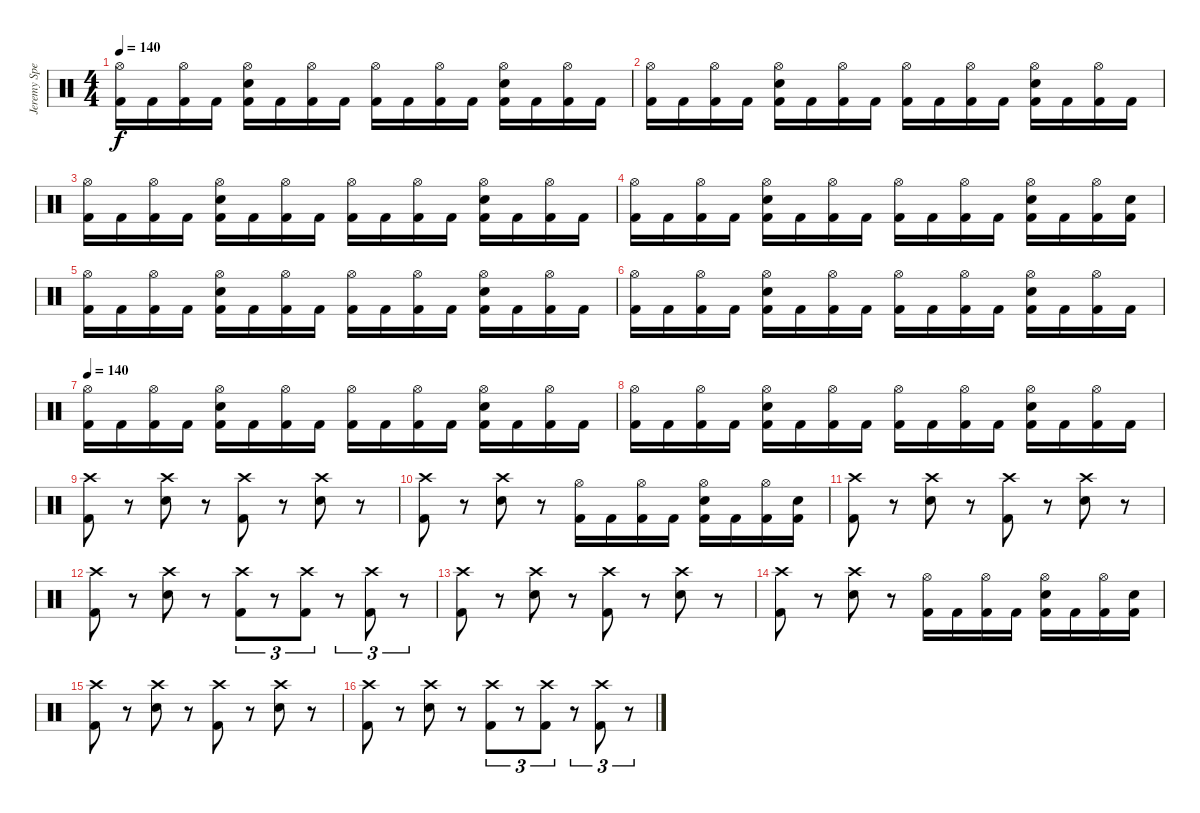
\track ("Jeremy Spencer" "Jeremy Spe") {instrument percussion}
\staff {score}
\articulation defaults
\ts (4 4)
\tempo 140
\clef neutral
\ks c
("Hi-Hat (open)" "Kick (hit) 2").16{dy f} "Kick (hit) 2".16 ("Hi-Hat (open)" "Kick (hit) 2").16 "Kick (hit) 2".16 ("Hi-Hat (open)" "Snare (hit) 2" "Kick (hit) 2").16 "Kick (hit) 2".16 ("Hi-Hat (open)" "Kick (hit) 2").16 "Kick (hit) 2".16 ("Hi-Hat (open)" "Kick (hit) 2").16 "Kick (hit) 2".16 ("Hi-Hat (open)" "Kick (hit) 2").16 "Kick (hit) 2".16 ("Hi-Hat (open)" "Snare (hit) 2" "Kick (hit) 2").16 "Kick (hit) 2".16 ("Hi-Hat (open)" "Kick (hit) 2").16 "Kick (hit) 2".16 |
("Hi-Hat (open)" "Kick (hit) 2").16 "Kick (hit) 2".16 ("Hi-Hat (open)" "Kick (hit) 2").16 "Kick (hit) 2".16 ("Hi-Hat (open)" "Snare (hit) 2" "Kick (hit) 2").16 "Kick (hit) 2".16 ("Hi-Hat (open)" "Kick (hit) 2").16 "Kick (hit) 2".16 ("Hi-Hat (open)" "Kick (hit) 2").16 "Kick (hit) 2".16 ("Hi-Hat (open)" "Kick (hit) 2").16 "Kick (hit) 2".16 ("Hi-Hat (open)" "Snare (hit) 2" "Kick (hit) 2").16 "Kick (hit) 2".16 ("Hi-Hat (open)" "Kick (hit) 2").16 "Kick (hit) 2".16 |
("Hi-Hat (open)" "Kick (hit) 2").16 "Kick (hit) 2".16 ("Hi-Hat (open)" "Kick (hit) 2").16 "Kick (hit) 2".16 ("Hi-Hat (open)" "Snare (hit) 2" "Kick (hit) 2").16 "Kick (hit) 2".16 ("Hi-Hat (open)" "Kick (hit) 2").16 "Kick (hit) 2".16 ("Hi-Hat (open)" "Kick (hit) 2").16 "Kick (hit) 2".16 ("Hi-Hat (open)" "Kick (hit) 2").16 "Kick (hit) 2".16 ("Hi-Hat (open)" "Snare (hit) 2" "Kick (hit) 2").16 "Kick (hit) 2".16 ("Hi-Hat (open)" "Kick (hit) 2").16 "Kick (hit) 2".16 |
("Hi-Hat (open)" "Kick (hit) 2").16 "Kick (hit) 2".16 ("Hi-Hat (open)" "Kick (hit) 2").16 "Kick (hit) 2".16 ("Hi-Hat (open)" "Snare (hit) 2" "Kick (hit) 2").16 "Kick (hit) 2".16 ("Hi-Hat (open)" "Kick (hit) 2").16 "Kick (hit) 2".16 ("Hi-Hat (open)" "Kick (hit) 2").16 "Kick (hit) 2".16 ("Hi-Hat (open)" "Kick (hit) 2").16 "Kick (hit) 2".16 ("Hi-Hat (open)" "Snare (hit) 2" "Kick (hit) 2").16 "Kick (hit) 2".16 ("Hi-Hat (open)" "Kick (hit) 2").16 ("Snare (hit) 2" "Kick (hit) 2").16 |
("Hi-Hat (open)" "Kick (hit) 2").16 "Kick (hit) 2".16 ("Hi-Hat (open)" "Kick (hit) 2").16 "Kick (hit) 2".16 ("Hi-Hat (open)" "Snare (hit) 2" "Kick (hit) 2").16 "Kick (hit) 2".16 ("Hi-Hat (open)" "Kick (hit) 2").16 "Kick (hit) 2".16 ("Hi-Hat (open)" "Kick (hit) 2").16 "Kick (hit) 2".16 ("Hi-Hat (open)" "Kick (hit) 2").16 "Kick (hit) 2".16 ("Hi-Hat (open)" "Snare (hit) 2" "Kick (hit) 2").16 "Kick (hit) 2".16 ("Hi-Hat (open)" "Kick (hit) 2").16 "Kick (hit) 2".16 |
("Hi-Hat (open)" "Kick (hit) 2").16 "Kick (hit) 2".16 ("Hi-Hat (open)" "Kick (hit) 2").16 "Kick (hit) 2".16 ("Hi-Hat (open)" "Snare (hit) 2" "Kick (hit) 2").16 "Kick (hit) 2".16 ("Hi-Hat (open)" "Kick (hit) 2").16 "Kick (hit) 2".16 ("Hi-Hat (open)" "Kick (hit) 2").16 "Kick (hit) 2".16 ("Hi-Hat (open)" "Kick (hit) 2").16 "Kick (hit) 2".16 ("Hi-Hat (open)" "Snare (hit) 2" "Kick (hit) 2").16 "Kick (hit) 2".16 ("Hi-Hat (open)" "Kick (hit) 2").16 "Kick (hit) 2".16 |
\tempo 140
("Hi-Hat (open)" "Kick (hit) 2").16 "Kick (hit) 2".16 ("Hi-Hat (open)" "Kick (hit) 2").16 "Kick (hit) 2".16 ("Hi-Hat (open)" "Snare (hit) 2" "Kick (hit) 2").16 "Kick (hit) 2".16 ("Hi-Hat (open)" "Kick (hit) 2").16 "Kick (hit) 2".16 ("Hi-Hat (open)" "Kick (hit) 2").16 "Kick (hit) 2".16 ("Hi-Hat (open)" "Kick (hit) 2").16 "Kick (hit) 2".16 ("Hi-Hat (open)" "Snare (hit) 2" "Kick (hit) 2").16 "Kick (hit) 2".16 ("Hi-Hat (open)" "Kick (hit) 2").16 "Kick (hit) 2".16 |
("Hi-Hat (open)" "Kick (hit) 2").16 "Kick (hit) 2".16 ("Hi-Hat (open)" "Kick (hit) 2").16 "Kick (hit) 2".16 ("Hi-Hat (open)" "Snare (hit) 2" "Kick (hit) 2").16 "Kick (hit) 2".16 ("Hi-Hat (open)" "Kick (hit) 2").16 "Kick (hit) 2".16 ("Hi-Hat (open)" "Kick (hit) 2").16 "Kick (hit) 2".16 ("Hi-Hat (open)" "Kick (hit) 2").16 "Kick (hit) 2".16 ("Hi-Hat (open)" "Snare (hit) 2" "Kick (hit) 2").16 "Kick (hit) 2".16 ("Hi-Hat (open)" "Kick (hit) 2").16 "Kick (hit) 2".16 |
("Crash high (hit)" "Kick (hit) 2").8 r.8 ("Crash high (hit)" "Snare (hit) 2").8 r.8 ("Crash high (hit)" "Kick (hit) 2").8 r.8 ("Crash high (hit)" "Snare (hit) 2").8 r.8 |
("Crash high (hit)" "Kick (hit) 2").8 r.8 ("Crash high (hit)" "Snare (hit) 2").8 r.8 ("Hi-Hat (open)" "Kick (hit) 2").16 "Kick (hit) 2".16 ("Hi-Hat (open)" "Kick (hit) 2").16 "Kick (hit) 2".16 ("Hi-Hat (open)" "Snare (hit) 2" "Kick (hit) 2").16 "Kick (hit) 2".16 ("Hi-Hat (open)" "Kick (hit) 2").16 ("Snare (hit) 2" "Kick (hit) 2").16 |
("Crash high (hit)" "Kick (hit) 2").8 r.8 ("Crash high (hit)" "Snare (hit) 2").8 r.8 ("Crash high (hit)" "Kick (hit) 2").8 r.8 ("Crash high (hit)" "Snare (hit) 2").8 r.8 |
("Crash high (hit)" "Kick (hit) 2").8 r.8 ("Crash high (hit)" "Snare (hit) 2").8 r.8 ("Crash high (hit)" "Kick (hit) 2").8{tu (3 2)} r.8{tu (3 2)} ("Crash high (hit)" "Kick (hit) 2").8{tu (3 2)} r.8{tu (3 2)} ("Crash high (hit)" "Kick (hit) 2").8{tu (3 2)} r.8{tu (3 2)} |
("Crash high (hit)" "Kick (hit) 2").8 r.8 ("Crash high (hit)" "Snare (hit) 2").8 r.8 ("Crash high (hit)" "Kick (hit) 2").8 r.8 ("Crash high (hit)" "Snare (hit) 2").8 r.8 |
("Crash high (hit)" "Kick (hit) 2").8 r.8 ("Crash high (hit)" "Snare (hit) 2").8 r.8 ("Hi-Hat (open)" "Kick (hit) 2").16 "Kick (hit) 2".16 ("Hi-Hat (open)" "Kick (hit) 2").16 "Kick (hit) 2".16 ("Hi-Hat (open)" "Snare (hit) 2" "Kick (hit) 2").16 "Kick (hit) 2".16 ("Hi-Hat (open)" "Kick (hit) 2").16 ("Snare (hit) 2" "Kick (hit) 2").16 |
("Crash high (hit)" "Kick (hit) 2").8 r.8 ("Crash high (hit)" "Snare (hit) 2").8 r.8 ("Crash high (hit)" "Kick (hit) 2").8 r.8 ("Crash high (hit)" "Snare (hit) 2").8 r.8 |
("Crash high (hit)" "Kick (hit) 2").8 r.8 ("Crash high (hit)" "Snare (hit) 2").8 r.8 ("Crash high (hit)" "Kick (hit) 2").8{tu (3 2)} r.8{tu (3 2)} ("Crash high (hit)" "Kick (hit) 2").8{tu (3 2)} r.8{tu (3 2)} ("Crash high (hit)" "Kick (hit) 2").8{tu (3 2)} r.8{tu (3 2)}
